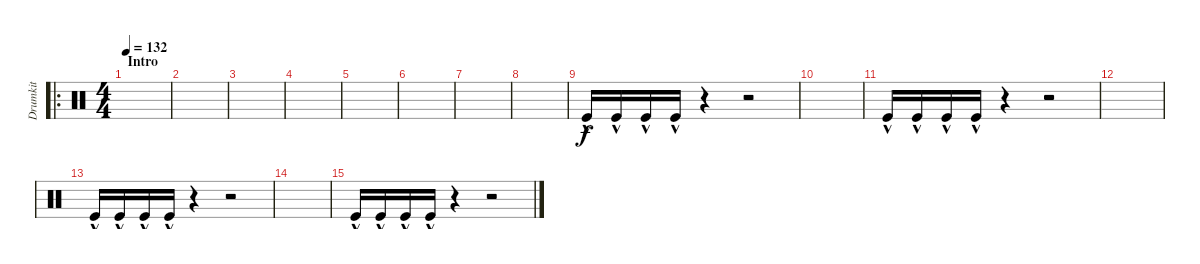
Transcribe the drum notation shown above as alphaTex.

\track ("Drumkit" "Drumkit") {instrument percussion}
\staff {score}
\articulation defaults
\ro
\ts (4 4)
\section ("" "Intro")
\tempo 132
\clef neutral
\ks c
|
|
|
|
|
|
|
|
"Kick (hit)"{hac}.16 "Kick (hit)"{hac}.16 "Kick (hit)"{hac}.16 "Kick (hit)"{hac}.16 r.4 r.2 |
|
"Kick (hit)"{hac}.16 "Kick (hit)"{hac}.16 "Kick (hit)"{hac}.16 "Kick (hit)"{hac}.16 r.4 r.2 |
|
"Kick (hit)"{hac}.16 "Kick (hit)"{hac}.16 "Kick (hit)"{hac}.16 "Kick (hit)"{hac}.16 r.4 r.2 |
|
"Kick (hit)"{hac}.16 "Kick (hit)"{hac}.16 "Kick (hit)"{hac}.16 "Kick (hit)"{hac}.16 r.4 r.2
